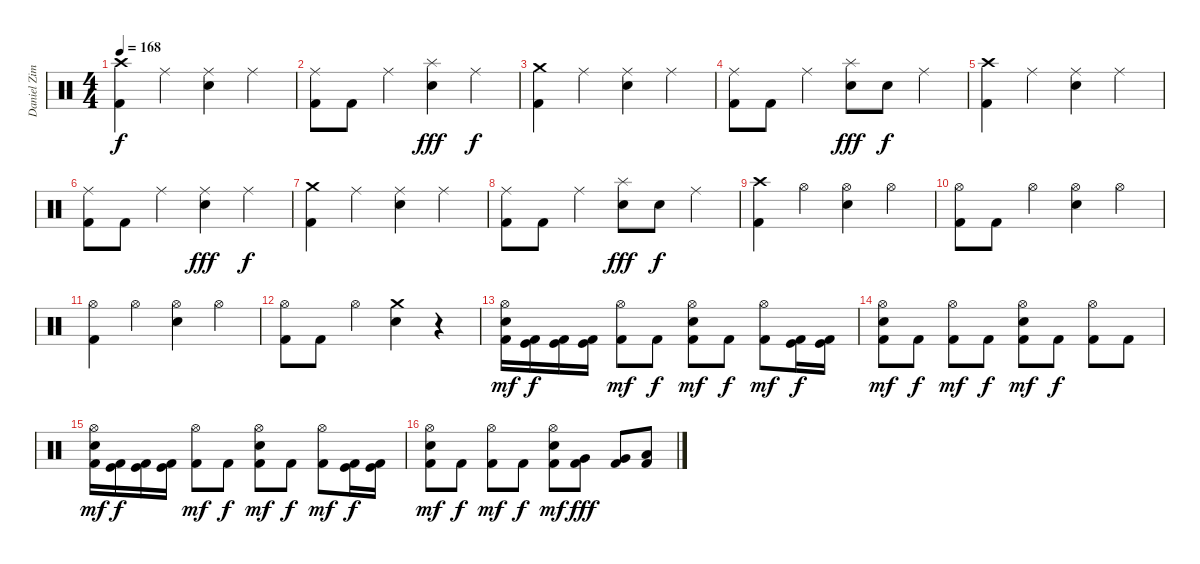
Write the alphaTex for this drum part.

\track ("Daniel Zimmermann - Drums" "Daniel Zim") {instrument percussion}
\staff {score}
\articulation defaults
\ts (4 4)
\tempo 168
\clef neutral
\ks c
("Kick (hit) 2" "Crash high (hit)").4{dy f} "Ride (middle)".4 ("Electric Snare (hit)" "Ride (middle)").4 "Ride (middle)".4 |
("Kick (hit) 2" "Ride (middle)").8 "Kick (hit) 2".8 "Ride (middle)".4 ("Electric Snare (hit)" "Splash (hit)").4{dy fff} "Ride (middle)".4{dy f} |
("Kick (hit) 2" "Crash medium (hit)").4 "Ride (middle)".4 ("Electric Snare (hit)" "Ride (middle)").4 "Ride (middle)".4 |
("Kick (hit) 2" "Ride (middle)").8 "Kick (hit) 2".8 "Ride (middle)".4 ("Electric Snare (hit)" "Splash (hit)").8{dy fff} "Electric Snare (hit)".8{dy f} "Ride (middle)".4 |
("Kick (hit) 2" "Crash high (hit)").4 "Ride (middle)".4 ("Electric Snare (hit)" "Ride (middle)").4 "Ride (middle)".4 |
("Kick (hit) 2" "Ride (middle)").8 "Kick (hit) 2".8 "Ride (middle)".4 ("Electric Snare (hit)" "Ride (middle)").4{dy fff} "Ride (middle)".4{dy f} |
("Kick (hit) 2" "Crash medium (hit)").4 "Ride (middle)".4 ("Electric Snare (hit)" "Ride (middle)").4 "Ride (middle)".4 |
("Kick (hit) 2" "Ride (middle)").8 "Kick (hit) 2".8 "Ride (middle)".4 ("Electric Snare (hit)" "Splash (hit)").8{dy fff} "Electric Snare (hit)".8{dy f} "Ride (middle)".4 |
("Kick (hit) 2" "Crash high (hit)").4 "Hi-Hat (open)".4 ("Electric Snare (hit)" "Hi-Hat (open)").4 "Hi-Hat (open)".4 |
("Kick (hit) 2" "Hi-Hat (open)").8 "Kick (hit) 2".8 "Hi-Hat (open)".4 ("Electric Snare (hit)" "Hi-Hat (open)").4 "Hi-Hat (open)".4 |
("Kick (hit) 2" "Hi-Hat (open)").4 "Hi-Hat (open)".4 ("Electric Snare (hit)" "Hi-Hat (open)").4 "Hi-Hat (open)".4 |
("Kick (hit) 2" "Hi-Hat (open)").8 "Kick (hit) 2".8 "Hi-Hat (open)".4 ("Electric Snare (hit)" "Crash medium (hit)").4 r.4 |
("Kick (hit) 2" "Electric Snare (hit)" "Hi-Hat (open)").16{dy mf} ("Kick (hit) 2" "Kick (hit)").16{dy f} ("Kick (hit) 2" "Kick (hit)").16 ("Kick (hit) 2" "Kick (hit)").16 ("Kick (hit) 2" "Hi-Hat (open)").8{dy mf} "Kick (hit) 2".8{dy f} ("Kick (hit) 2" "Electric Snare (hit)" "Hi-Hat (open)").8{dy mf} "Kick (hit) 2".8{dy f} ("Kick (hit) 2" "Hi-Hat (open)").8{dy mf} ("Kick (hit) 2" "Kick (hit)").16{dy f} ("Kick (hit) 2" "Kick (hit)").16 |
("Kick (hit) 2" "Electric Snare (hit)" "Hi-Hat (open)").8{dy mf} "Kick (hit) 2".8{dy f} ("Kick (hit) 2" "Hi-Hat (open)").8{dy mf} "Kick (hit) 2".8{dy f} ("Kick (hit) 2" "Electric Snare (hit)" "Hi-Hat (open)").8{dy mf} "Kick (hit) 2".8{dy f} ("Kick (hit) 2" "Hi-Hat (open)").8 "Kick (hit) 2".8 |
("Kick (hit) 2" "Electric Snare (hit)" "Hi-Hat (open)").16{dy mf} ("Kick (hit) 2" "Kick (hit)").16{dy f} ("Kick (hit) 2" "Kick (hit)").16 ("Kick (hit) 2" "Kick (hit)").16 ("Kick (hit) 2" "Hi-Hat (open)").8{dy mf} "Kick (hit) 2".8{dy f} ("Kick (hit) 2" "Electric Snare (hit)" "Hi-Hat (open)").8{dy mf} "Kick (hit) 2".8{dy f} ("Kick (hit) 2" "Hi-Hat (open)").8{dy mf} ("Kick (hit) 2" "Kick (hit)").16{dy f} ("Kick (hit) 2" "Kick (hit)").16 |
("Kick (hit) 2" "Electric Snare (hit)" "Hi-Hat (open)").8{dy mf} "Kick (hit) 2".8{dy f} ("Kick (hit) 2" "Hi-Hat (open)").8{dy mf} "Kick (hit) 2".8{dy f} ("Kick (hit) 2" "Electric Snare (hit)" "Hi-Hat (open)").8{dy mf} ("Kick (hit) 2" "Very Low Tom (hit)").8{dy fff} ("Kick (hit) 2" "Very Low Tom (hit)").8 ("Kick (hit) 2" "Low Floor Tom (hit)").8
